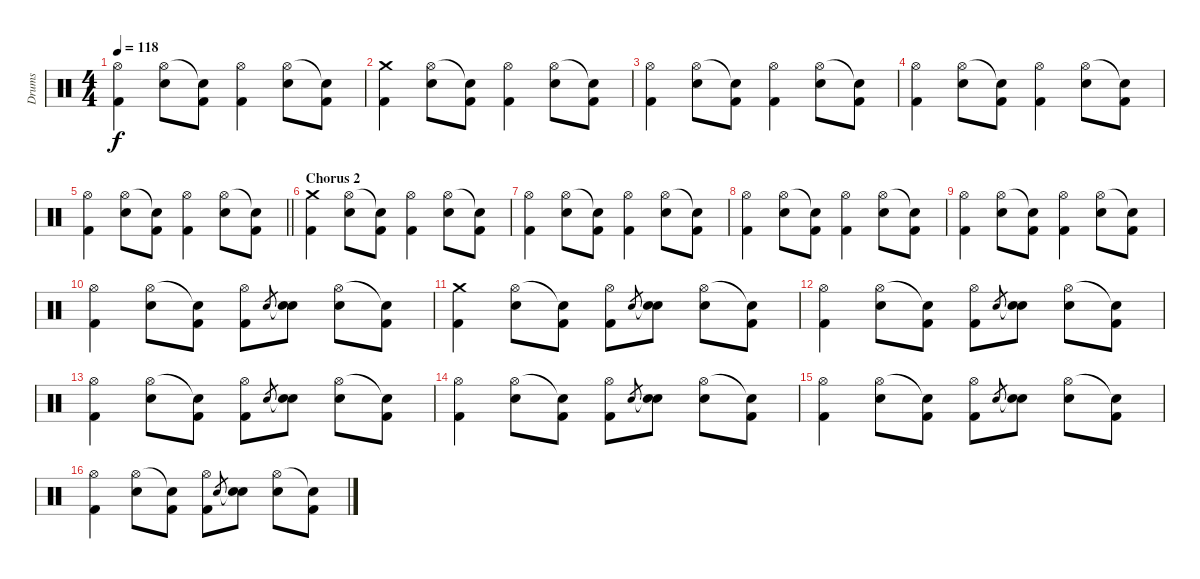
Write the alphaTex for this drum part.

\track ("Drums" "Drums") {instrument percussion}
\staff {score}
\articulation defaults
\ts (4 4)
\tempo 118
\clef neutral
\ks c
("Hi-Hat (open)" "Kick (hit) 2").4{dy f} ("Hi-Hat (open)" "Electric Snare (hit)").8 ("Snare (hit)"{t} "Kick (hit) 2").8 ("Hi-Hat (open)" "Kick (hit) 2").4 ("Hi-Hat (open)" "Electric Snare (hit)").8 ("Snare (hit)"{t} "Kick (hit) 2").8 |
("Crash medium (hit)" "Kick (hit) 2").4 ("Hi-Hat (open)" "Electric Snare (hit)").8 ("Snare (hit)"{t} "Kick (hit) 2").8 ("Hi-Hat (open)" "Kick (hit) 2").4 ("Hi-Hat (open)" "Electric Snare (hit)").8 ("Snare (hit)"{t} "Kick (hit) 2").8 |
("Hi-Hat (open)" "Kick (hit) 2").4 ("Hi-Hat (open)" "Electric Snare (hit)").8 ("Snare (hit)"{t} "Kick (hit) 2").8 ("Hi-Hat (open)" "Kick (hit) 2").4 ("Hi-Hat (open)" "Electric Snare (hit)").8 ("Snare (hit)"{t} "Kick (hit) 2").8 |
("Hi-Hat (open)" "Kick (hit) 2").4 ("Hi-Hat (open)" "Electric Snare (hit)").8 ("Snare (hit)"{t} "Kick (hit) 2").8 ("Hi-Hat (open)" "Kick (hit) 2").4 ("Hi-Hat (open)" "Electric Snare (hit)").8 ("Snare (hit)"{t} "Kick (hit) 2").8 |
\barLineRight lightlight
("Hi-Hat (open)" "Kick (hit) 2").4 ("Hi-Hat (open)" "Electric Snare (hit)").8 ("Snare (hit)"{t} "Kick (hit) 2").8 ("Hi-Hat (open)" "Kick (hit) 2").4 ("Hi-Hat (open)" "Electric Snare (hit)").8 ("Snare (hit)"{t} "Kick (hit) 2").8 |
\section ("" "Chorus 2")
("Crash medium (hit)" "Kick (hit) 2").4 ("Hi-Hat (open)" "Electric Snare (hit)").8 ("Snare (hit)"{t} "Kick (hit) 2").8 ("Hi-Hat (open)" "Kick (hit) 2").4 ("Hi-Hat (open)" "Electric Snare (hit)").8 ("Snare (hit)"{t} "Kick (hit) 2").8 |
("Hi-Hat (open)" "Kick (hit) 2").4 ("Hi-Hat (open)" "Electric Snare (hit)").8 ("Snare (hit)"{t} "Kick (hit) 2").8 ("Hi-Hat (open)" "Kick (hit) 2").4 ("Hi-Hat (open)" "Electric Snare (hit)").8 ("Snare (hit)"{t} "Kick (hit) 2").8 |
("Hi-Hat (open)" "Kick (hit) 2").4 ("Hi-Hat (open)" "Electric Snare (hit)").8 ("Snare (hit)"{t} "Kick (hit) 2").8 ("Hi-Hat (open)" "Kick (hit) 2").4 ("Hi-Hat (open)" "Electric Snare (hit)").8 ("Snare (hit)"{t} "Kick (hit) 2").8 |
("Hi-Hat (open)" "Kick (hit) 2").4 ("Hi-Hat (open)" "Electric Snare (hit)").8 ("Snare (hit)"{t} "Kick (hit) 2").8 ("Hi-Hat (open)" "Kick (hit) 2").4 ("Hi-Hat (open)" "Electric Snare (hit)").8 ("Snare (hit)"{t} "Kick (hit) 2").8 |
("Hi-Hat (open)" "Kick (hit) 2").4 ("Hi-Hat (open)" "Electric Snare (hit)").8 ("Snare (hit)"{t} "Kick (hit) 2").8 ("Hi-Hat (open)" "Kick (hit) 2").8 "Electric Snare (hit)".8{gr} ("Snare (hit)"{t} "Electric Snare (hit)").8 ("Hi-Hat (open)" "Electric Snare (hit)").8 ("Snare (hit)"{t} "Kick (hit) 2").8 |
("Crash medium (hit)" "Kick (hit) 2").4 ("Hi-Hat (open)" "Electric Snare (hit)").8 ("Snare (hit)"{t} "Kick (hit) 2").8 ("Hi-Hat (open)" "Kick (hit) 2").8 "Electric Snare (hit)".8{gr} ("Snare (hit)"{t} "Electric Snare (hit)").8 ("Hi-Hat (open)" "Electric Snare (hit)").8 ("Snare (hit)"{t} "Kick (hit) 2").8 |
("Hi-Hat (open)" "Kick (hit) 2").4 ("Hi-Hat (open)" "Electric Snare (hit)").8 ("Snare (hit)"{t} "Kick (hit) 2").8 ("Hi-Hat (open)" "Kick (hit) 2").8 "Electric Snare (hit)".8{gr} ("Snare (hit)"{t} "Electric Snare (hit)").8 ("Hi-Hat (open)" "Electric Snare (hit)").8 ("Snare (hit)"{t} "Kick (hit) 2").8 |
("Hi-Hat (open)" "Kick (hit) 2").4 ("Hi-Hat (open)" "Electric Snare (hit)").8 ("Snare (hit)"{t} "Kick (hit) 2").8 ("Hi-Hat (open)" "Kick (hit) 2").8 "Electric Snare (hit)".8{gr} ("Snare (hit)"{t} "Electric Snare (hit)").8 ("Hi-Hat (open)" "Electric Snare (hit)").8 ("Snare (hit)"{t} "Kick (hit) 2").8 |
("Hi-Hat (open)" "Kick (hit) 2").4 ("Hi-Hat (open)" "Electric Snare (hit)").8 ("Snare (hit)"{t} "Kick (hit) 2").8 ("Hi-Hat (open)" "Kick (hit) 2").8 "Electric Snare (hit)".8{gr} ("Snare (hit)"{t} "Electric Snare (hit)").8 ("Hi-Hat (open)" "Electric Snare (hit)").8 ("Snare (hit)"{t} "Kick (hit) 2").8 |
("Hi-Hat (open)" "Kick (hit) 2").4 ("Hi-Hat (open)" "Electric Snare (hit)").8 ("Snare (hit)"{t} "Kick (hit) 2").8 ("Hi-Hat (open)" "Kick (hit) 2").8 "Electric Snare (hit)".8{gr} ("Snare (hit)"{t} "Electric Snare (hit)").8 ("Hi-Hat (open)" "Electric Snare (hit)").8 ("Snare (hit)"{t} "Kick (hit) 2").8 |
("Hi-Hat (open)" "Kick (hit) 2").4 ("Hi-Hat (open)" "Electric Snare (hit)").8 ("Snare (hit)"{t} "Kick (hit) 2").8 ("Hi-Hat (open)" "Kick (hit) 2").8 "Electric Snare (hit)".8{gr} ("Snare (hit)"{t} "Electric Snare (hit)").8 ("Hi-Hat (open)" "Electric Snare (hit)").8 ("Snare (hit)"{t} "Kick (hit) 2").8
